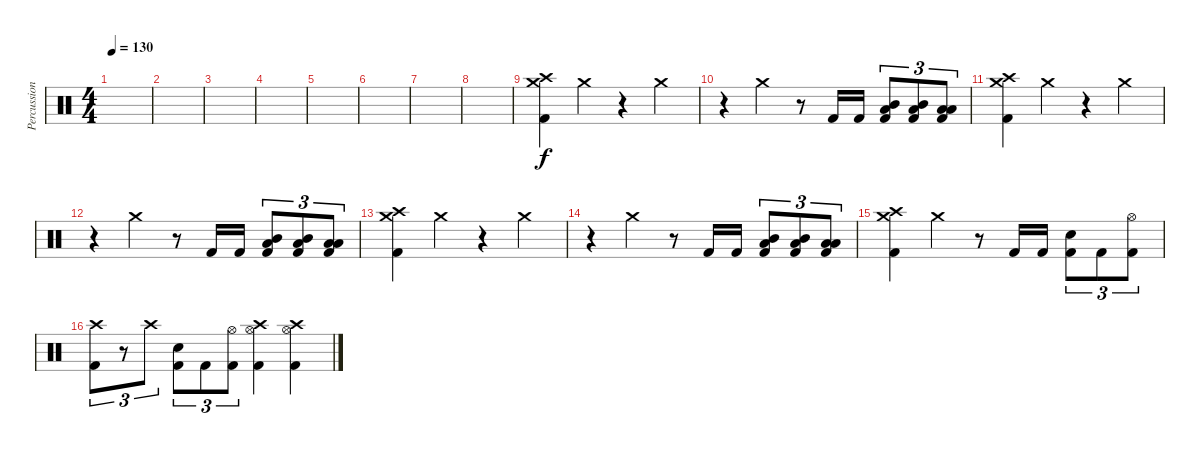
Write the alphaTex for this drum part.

\track ("Percussion" "Percussion") {instrument percussion}
\staff {score}
\articulation defaults
\ts (4 4)
\tempo 130
\clef neutral
\ks c
|
|
|
|
|
|
|
|
("Crash high (hit)" "Crash medium (hit)" "Kick (hit) 2").4 "Crash medium (hit)".4 r.4 "Crash medium (hit)".4 |
r.4 "Crash medium (hit)".4 r.8 "Kick (hit) 2".16 "Kick (hit) 2".16 ("Mid Tom (hit)" "Low Floor Tom (hit)" "Kick (hit) 2").8{tu (3 2)} ("Mid Tom (hit)" "Low Floor Tom (hit)" "Kick (hit) 2").8{tu (3 2)} ("Low Tom (hit)" "Low Floor Tom (hit)" "Kick (hit) 2").8{tu (3 2)} |
("Crash high (hit)" "Crash medium (hit)" "Kick (hit) 2").4 "Crash medium (hit)".4 r.4 "Crash medium (hit)".4 |
r.4 "Crash medium (hit)".4 r.8 "Kick (hit) 2".16 "Kick (hit) 2".16 ("Mid Tom (hit)" "Low Floor Tom (hit)" "Kick (hit) 2").8{tu (3 2)} ("Mid Tom (hit)" "Low Floor Tom (hit)" "Kick (hit) 2").8{tu (3 2)} ("Low Tom (hit)" "Low Floor Tom (hit)" "Kick (hit) 2").8{tu (3 2)} |
("Crash high (hit)" "Crash medium (hit)" "Kick (hit) 2").4 "Crash medium (hit)".4 r.4 "Crash medium (hit)".4 |
r.4 "Crash medium (hit)".4 r.8 "Kick (hit) 2".16 "Kick (hit) 2".16 ("Mid Tom (hit)" "Low Floor Tom (hit)" "Kick (hit) 2").8{tu (3 2)} ("Mid Tom (hit)" "Low Floor Tom (hit)" "Kick (hit) 2").8{tu (3 2)} ("Low Tom (hit)" "Low Floor Tom (hit)" "Kick (hit) 2").8{tu (3 2)} |
("Crash high (hit)" "Crash medium (hit)" "Kick (hit) 2").4 "Crash medium (hit)".4 r.8 "Kick (hit) 2".16 "Kick (hit) 2".16 ("Snare (hit) 2" "Kick (hit) 2").8{tu (3 2)} "Kick (hit) 2".8{tu (3 2)} ("Hi-Hat (open)" "Kick (hit) 2").8{tu (3 2)} |
("Crash high (hit)" "Kick (hit) 2").8{tu (3 2)} r.8{tu (3 2)} "Crash high (hit)".8{tu (3 2)} ("Snare (hit) 2" "Kick (hit) 2").8{tu (3 2)} "Kick (hit) 2".8{tu (3 2)} ("Hi-Hat (open)" "Kick (hit) 2").8{tu (3 2)} ("Crash high (hit)" "Hi-Hat (open)" "Kick (hit) 2").4 ("Crash high (hit)" "Hi-Hat (open)" "Kick (hit) 2").4
